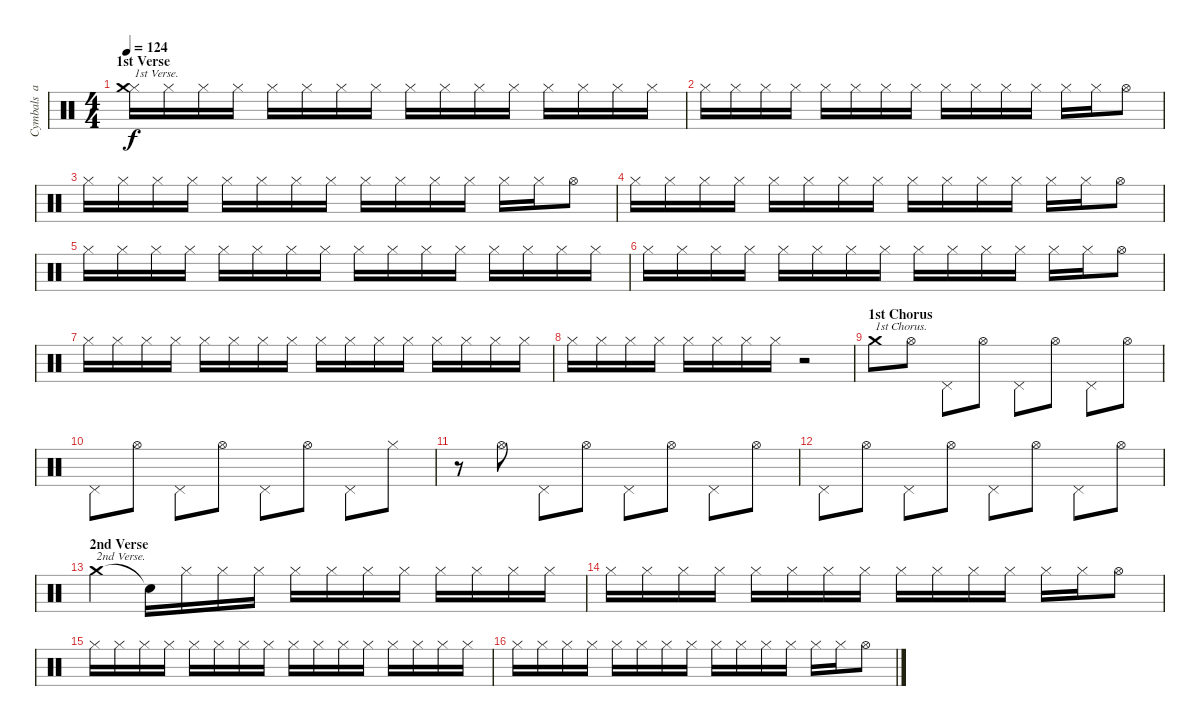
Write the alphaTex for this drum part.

\track ("Cymbals  and Hi-hat" "Cymbals  a") {instrument percussion}
\staff {score}
\articulation defaults
\ts (4 4)
\section ("" "1st Verse")
\tempo 124
\clef neutral
\ks c
("Hi-Hat (closed)" "Crash medium (hit)").16{txt "1st Verse." dy f} "Hi-Hat (closed)".16 "Hi-Hat (closed)".16 "Hi-Hat (closed)".16 "Hi-Hat (closed)".16 "Hi-Hat (closed)".16 "Hi-Hat (closed)".16 "Hi-Hat (closed)".16 "Hi-Hat (closed)".16 "Hi-Hat (closed)".16 "Hi-Hat (closed)".16 "Hi-Hat (closed)".16 "Hi-Hat (closed)".16 "Hi-Hat (closed)".16 "Hi-Hat (closed)".16 "Hi-Hat (closed)".16 |
"Hi-Hat (closed)".16 "Hi-Hat (closed)".16 "Hi-Hat (closed)".16 "Hi-Hat (closed)".16 "Hi-Hat (closed)".16 "Hi-Hat (closed)".16 "Hi-Hat (closed)".16 "Hi-Hat (closed)".16 "Hi-Hat (closed)".16 "Hi-Hat (closed)".16 "Hi-Hat (closed)".16 "Hi-Hat (closed)".16 "Hi-Hat (closed)".16 "Hi-Hat (closed)".16 "Hi-Hat (open)".8 |
"Hi-Hat (closed)".16 "Hi-Hat (closed)".16 "Hi-Hat (closed)".16 "Hi-Hat (closed)".16 "Hi-Hat (closed)".16 "Hi-Hat (closed)".16 "Hi-Hat (closed)".16 "Hi-Hat (closed)".16 "Hi-Hat (closed)".16 "Hi-Hat (closed)".16 "Hi-Hat (closed)".16 "Hi-Hat (closed)".16 "Hi-Hat (closed)".16 "Hi-Hat (closed)".16 "Hi-Hat (open)".8 |
"Hi-Hat (closed)".16 "Hi-Hat (closed)".16 "Hi-Hat (closed)".16 "Hi-Hat (closed)".16 "Hi-Hat (closed)".16 "Hi-Hat (closed)".16 "Hi-Hat (closed)".16 "Hi-Hat (closed)".16 "Hi-Hat (closed)".16 "Hi-Hat (closed)".16 "Hi-Hat (closed)".16 "Hi-Hat (closed)".16 "Hi-Hat (closed)".16 "Hi-Hat (closed)".16 "Hi-Hat (open)".8 |
"Hi-Hat (closed)".16 "Hi-Hat (closed)".16 "Hi-Hat (closed)".16 "Hi-Hat (closed)".16 "Hi-Hat (closed)".16 "Hi-Hat (closed)".16 "Hi-Hat (closed)".16 "Hi-Hat (closed)".16 "Hi-Hat (closed)".16 "Hi-Hat (closed)".16 "Hi-Hat (closed)".16 "Hi-Hat (closed)".16 "Hi-Hat (closed)".16 "Hi-Hat (closed)".16 "Hi-Hat (closed)".16 "Hi-Hat (closed)".16 |
"Hi-Hat (closed)".16 "Hi-Hat (closed)".16 "Hi-Hat (closed)".16 "Hi-Hat (closed)".16 "Hi-Hat (closed)".16 "Hi-Hat (closed)".16 "Hi-Hat (closed)".16 "Hi-Hat (closed)".16 "Hi-Hat (closed)".16 "Hi-Hat (closed)".16 "Hi-Hat (closed)".16 "Hi-Hat (closed)".16 "Hi-Hat (closed)".16 "Hi-Hat (closed)".16 "Hi-Hat (open)".8 |
"Hi-Hat (closed)".16 "Hi-Hat (closed)".16 "Hi-Hat (closed)".16 "Hi-Hat (closed)".16 "Hi-Hat (closed)".16 "Hi-Hat (closed)".16 "Hi-Hat (closed)".16 "Hi-Hat (closed)".16 "Hi-Hat (closed)".16 "Hi-Hat (closed)".16 "Hi-Hat (closed)".16 "Hi-Hat (closed)".16 "Hi-Hat (closed)".16 "Hi-Hat (closed)".16 "Hi-Hat (closed)".16 "Hi-Hat (closed)".16 |
"Hi-Hat (closed)".16 "Hi-Hat (closed)".16 "Hi-Hat (closed)".16 "Hi-Hat (closed)".16 "Hi-Hat (closed)".16 "Hi-Hat (closed)".16 "Hi-Hat (closed)".16 "Hi-Hat (closed)".16 r.2 |
\section ("" "1st Chorus")
"Crash medium (hit)".8{txt "1st Chorus."} "Hi-Hat (open)".8 "Pedal Hi-Hat (hit)".8 "Hi-Hat (open)".8 "Pedal Hi-Hat (hit)".8 "Hi-Hat (open)".8 "Pedal Hi-Hat (hit)".8 "Hi-Hat (open)".8 |
"Pedal Hi-Hat (hit)".8 "Hi-Hat (open)".8 "Pedal Hi-Hat (hit)".8 "Hi-Hat (open)".8 "Pedal Hi-Hat (hit)".8 "Hi-Hat (open)".8 "Pedal Hi-Hat (hit)".8 "Hi-Hat (closed)".8 |
r.8 "Hi-Hat (open)".8 "Pedal Hi-Hat (hit)".8 "Hi-Hat (open)".8 "Pedal Hi-Hat (hit)".8 "Hi-Hat (open)".8 "Pedal Hi-Hat (hit)".8 "Hi-Hat (open)".8 |
"Pedal Hi-Hat (hit)".8 "Hi-Hat (open)".8 "Pedal Hi-Hat (hit)".8 "Hi-Hat (open)".8 "Pedal Hi-Hat (hit)".8 "Hi-Hat (open)".8 "Pedal Hi-Hat (hit)".8 "Hi-Hat (open)".8 |
\section ("" "2nd Verse")
"Crash medium (hit)".4{txt "2nd Verse."} "Snare (hit)"{t}.16 "Hi-Hat (closed)".16 "Hi-Hat (closed)".16 "Hi-Hat (closed)".16 "Hi-Hat (closed)".16 "Hi-Hat (closed)".16 "Hi-Hat (closed)".16 "Hi-Hat (closed)".16 "Hi-Hat (closed)".16 "Hi-Hat (closed)".16 "Hi-Hat (closed)".16 "Hi-Hat (closed)".16 |
"Hi-Hat (closed)".16 "Hi-Hat (closed)".16 "Hi-Hat (closed)".16 "Hi-Hat (closed)".16 "Hi-Hat (closed)".16 "Hi-Hat (closed)".16 "Hi-Hat (closed)".16 "Hi-Hat (closed)".16 "Hi-Hat (closed)".16 "Hi-Hat (closed)".16 "Hi-Hat (closed)".16 "Hi-Hat (closed)".16 "Hi-Hat (closed)".16 "Hi-Hat (closed)".16 "Hi-Hat (open)".8 |
"Hi-Hat (closed)".16 "Hi-Hat (closed)".16 "Hi-Hat (closed)".16 "Hi-Hat (closed)".16 "Hi-Hat (closed)".16 "Hi-Hat (closed)".16 "Hi-Hat (closed)".16 "Hi-Hat (closed)".16 "Hi-Hat (closed)".16 "Hi-Hat (closed)".16 "Hi-Hat (closed)".16 "Hi-Hat (closed)".16 "Hi-Hat (closed)".16 "Hi-Hat (closed)".16 "Hi-Hat (closed)".16 "Hi-Hat (closed)".16 |
"Hi-Hat (closed)".16 "Hi-Hat (closed)".16 "Hi-Hat (closed)".16 "Hi-Hat (closed)".16 "Hi-Hat (closed)".16 "Hi-Hat (closed)".16 "Hi-Hat (closed)".16 "Hi-Hat (closed)".16 "Hi-Hat (closed)".16 "Hi-Hat (closed)".16 "Hi-Hat (closed)".16 "Hi-Hat (closed)".16 "Hi-Hat (closed)".16 "Hi-Hat (closed)".16 "Hi-Hat (open)".8
